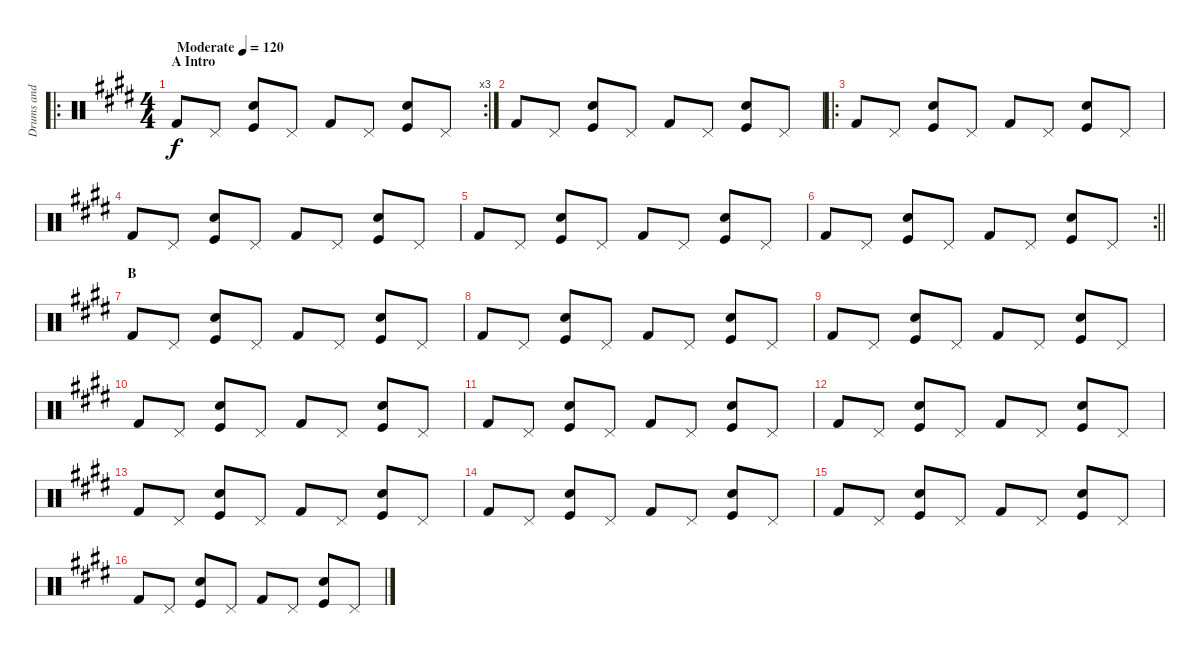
\track ("Drums and clapping" "Drums and ") {instrument percussion}
\staff {score}
\articulation defaults
\ro
\rc 3
\ts (4 4)
\section ("" "A Intro")
\tempo (120 "Moderate")
\clef neutral
\ks e "Kick (hit) 2".8{dy f} "Pedal Hi-Hat (hit)".8
("Kick (hit)" "Hand Clap (hit)").8 "Pedal Hi-Hat (hit)".8 "Kick (hit) 2".8 "Pedal Hi-Hat (hit)".8 ("Kick (hit)" "Hand Clap (hit)").8 "Pedal Hi-Hat (hit)".8 |
"Kick (hit) 2".8 "Pedal Hi-Hat (hit)".8 ("Kick (hit)" "Hand Clap (hit)").8 "Pedal Hi-Hat (hit)".8 "Kick (hit) 2".8 "Pedal Hi-Hat (hit)".8 ("Kick (hit)" "Hand Clap (hit)").8 "Pedal Hi-Hat (hit)".8 |
\ro "Kick (hit) 2".8 "Pedal Hi-Hat (hit)".8
("Kick (hit)" "Hand Clap (hit)").8 "Pedal Hi-Hat (hit)".8 "Kick (hit) 2".8 "Pedal Hi-Hat (hit)".8 ("Kick (hit)" "Hand Clap (hit)").8 "Pedal Hi-Hat (hit)".8 |
"Kick (hit) 2".8 "Pedal Hi-Hat (hit)".8 ("Kick (hit)" "Hand Clap (hit)").8 "Pedal Hi-Hat (hit)".8 "Kick (hit) 2".8 "Pedal Hi-Hat (hit)".8 ("Kick (hit)" "Hand Clap (hit)").8 "Pedal Hi-Hat (hit)".8 |
"Kick (hit) 2".8 "Pedal Hi-Hat (hit)".8 ("Kick (hit)" "Hand Clap (hit)").8 "Pedal Hi-Hat (hit)".8 "Kick (hit) 2".8 "Pedal Hi-Hat (hit)".8 ("Kick (hit)" "Hand Clap (hit)").8 "Pedal Hi-Hat (hit)".8 |
\rc 2
\barLineRight lightlight "Kick (hit) 2".8 "Pedal Hi-Hat (hit)".8
("Kick (hit)" "Hand Clap (hit)").8 "Pedal Hi-Hat (hit)".8 "Kick (hit) 2".8 "Pedal Hi-Hat (hit)".8 ("Kick (hit)" "Hand Clap (hit)").8 "Pedal Hi-Hat (hit)".8 |
\section ("" "B")
"Kick (hit) 2".8 "Pedal Hi-Hat (hit)".8 ("Kick (hit)" "Hand Clap (hit)").8 "Pedal Hi-Hat (hit)".8 "Kick (hit) 2".8 "Pedal Hi-Hat (hit)".8 ("Kick (hit)" "Hand Clap (hit)").8 "Pedal Hi-Hat (hit)".8 |
"Kick (hit) 2".8 "Pedal Hi-Hat (hit)".8 ("Kick (hit)" "Hand Clap (hit)").8 "Pedal Hi-Hat (hit)".8 "Kick (hit) 2".8 "Pedal Hi-Hat (hit)".8 ("Kick (hit)" "Hand Clap (hit)").8 "Pedal Hi-Hat (hit)".8 |
"Kick (hit) 2".8 "Pedal Hi-Hat (hit)".8 ("Kick (hit)" "Hand Clap (hit)").8 "Pedal Hi-Hat (hit)".8 "Kick (hit) 2".8 "Pedal Hi-Hat (hit)".8 ("Kick (hit)" "Hand Clap (hit)").8 "Pedal Hi-Hat (hit)".8 |
"Kick (hit) 2".8 "Pedal Hi-Hat (hit)".8 ("Kick (hit)" "Hand Clap (hit)").8 "Pedal Hi-Hat (hit)".8 "Kick (hit) 2".8 "Pedal Hi-Hat (hit)".8 ("Kick (hit)" "Hand Clap (hit)").8 "Pedal Hi-Hat (hit)".8 |
"Kick (hit) 2".8 "Pedal Hi-Hat (hit)".8 ("Kick (hit)" "Hand Clap (hit)").8 "Pedal Hi-Hat (hit)".8 "Kick (hit) 2".8 "Pedal Hi-Hat (hit)".8 ("Kick (hit)" "Hand Clap (hit)").8 "Pedal Hi-Hat (hit)".8 |
"Kick (hit) 2".8 "Pedal Hi-Hat (hit)".8 ("Kick (hit)" "Hand Clap (hit)").8 "Pedal Hi-Hat (hit)".8 "Kick (hit) 2".8 "Pedal Hi-Hat (hit)".8 ("Kick (hit)" "Hand Clap (hit)").8 "Pedal Hi-Hat (hit)".8 |
"Kick (hit) 2".8 "Pedal Hi-Hat (hit)".8 ("Kick (hit)" "Hand Clap (hit)").8 "Pedal Hi-Hat (hit)".8 "Kick (hit) 2".8 "Pedal Hi-Hat (hit)".8 ("Kick (hit)" "Hand Clap (hit)").8 "Pedal Hi-Hat (hit)".8 |
"Kick (hit) 2".8 "Pedal Hi-Hat (hit)".8 ("Kick (hit)" "Hand Clap (hit)").8 "Pedal Hi-Hat (hit)".8 "Kick (hit) 2".8 "Pedal Hi-Hat (hit)".8 ("Kick (hit)" "Hand Clap (hit)").8 "Pedal Hi-Hat (hit)".8 |
"Kick (hit) 2".8 "Pedal Hi-Hat (hit)".8 ("Kick (hit)" "Hand Clap (hit)").8 "Pedal Hi-Hat (hit)".8 "Kick (hit) 2".8 "Pedal Hi-Hat (hit)".8 ("Kick (hit)" "Hand Clap (hit)").8 "Pedal Hi-Hat (hit)".8 |
"Kick (hit) 2".8 "Pedal Hi-Hat (hit)".8 ("Kick (hit)" "Hand Clap (hit)").8 "Pedal Hi-Hat (hit)".8 "Kick (hit) 2".8 "Pedal Hi-Hat (hit)".8 ("Kick (hit)" "Hand Clap (hit)").8 "Pedal Hi-Hat (hit)".8
